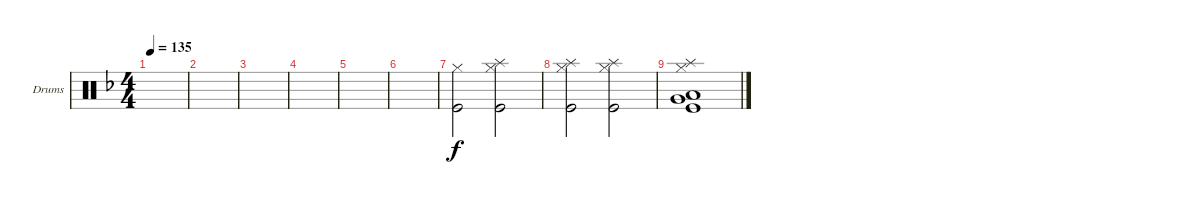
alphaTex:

\bracketExtendMode groupsimilarinstruments
\firstSystemTrackNameOrientation horizontal
\otherSystemsTrackNameOrientation horizontal
\track ("Drumkit" "Drums") {instrument percussion}
\staff {score}
\articulation defaults
\ts (4 4)
\tempo 135
\clef neutral
\ks dminor
|
|
|
|
|
|
("Hi-Hat (closed)" "Kick (hit)").2 ("Hi-Hat (closed)" "Kick (hit)" "Splash (hit)").2 |
("Hi-Hat (closed)" "Kick (hit)" "Splash (hit)").2 ("Hi-Hat (closed)" "Kick (hit)" "Splash (hit)").2 |
("Hi-Hat (closed)" "Kick (hit)" "Splash (hit)" "Very Low Tom (hit)" "Low Tom (hit)").1
